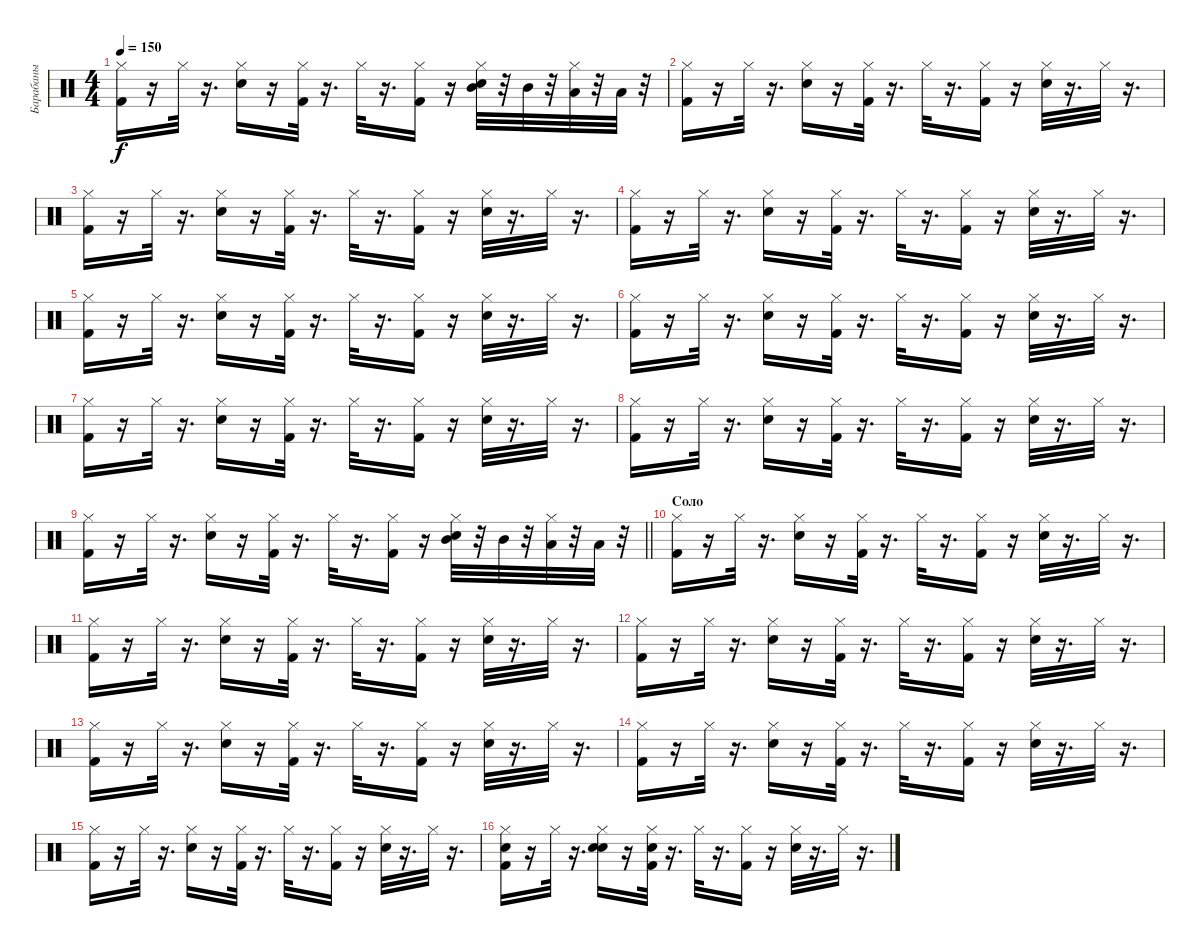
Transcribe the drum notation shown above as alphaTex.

\track ("Барабаны" "Барабаны") {instrument percussion}
\staff {score}
\articulation defaults
\ts (4 4)
\tempo 150
\clef neutral
\ks c
("Kick (hit) 2" "Hi-Hat (closed)").16{dy f} r.16 "Hi-Hat (closed)".32 r.16{d} ("Electric Snare (hit)" "Hi-Hat (closed)").16 r.16 ("Kick (hit) 2" "Hi-Hat (closed)").32 r.16{d} "Hi-Hat (closed)".32 r.16{d} ("Kick (hit) 2" "Hi-Hat (closed)").16 r.16 ("Electric Snare (hit)" "Hi-Hat (closed)" "Mid Tom (hit)").32 r.32 "Mid Tom (hit)".32 r.32 ("Low Tom (hit)" "Hi-Hat (closed)").32 r.32 "Low Tom (hit)".32 r.32 |
("Hi-Hat (closed)" "Kick (hit) 2").16 r.16 "Hi-Hat (closed)".32 r.16{d} ("Electric Snare (hit)" "Hi-Hat (closed)").16 r.16 ("Hi-Hat (closed)" "Kick (hit) 2").32 r.16{d} "Hi-Hat (closed)".32 r.16{d} ("Kick (hit) 2" "Hi-Hat (closed)").16 r.16 ("Electric Snare (hit)" "Hi-Hat (closed)").32 r.16{d} "Hi-Hat (closed)".32 r.16{d} |
("Hi-Hat (closed)" "Kick (hit) 2").16 r.16 "Hi-Hat (closed)".32 r.16{d} ("Electric Snare (hit)" "Hi-Hat (closed)").16 r.16 ("Kick (hit) 2" "Hi-Hat (closed)").32 r.16{d} "Hi-Hat (closed)".32 r.16{d} ("Kick (hit) 2" "Hi-Hat (closed)").16 r.16 ("Electric Snare (hit)" "Hi-Hat (closed)").32 r.16{d} "Hi-Hat (closed)".32 r.16{d} |
("Kick (hit) 2" "Hi-Hat (closed)").16 r.16 "Hi-Hat (closed)".32 r.16{d} ("Electric Snare (hit)" "Hi-Hat (closed)").16 r.16 ("Kick (hit) 2" "Hi-Hat (closed)").32 r.16{d} "Hi-Hat (closed)".32 r.16{d} ("Kick (hit) 2" "Hi-Hat (closed)").16 r.16 ("Electric Snare (hit)" "Hi-Hat (closed)").32 r.16{d} "Hi-Hat (closed)".32 r.16{d} |
("Kick (hit) 2" "Hi-Hat (closed)").16 r.16 "Hi-Hat (closed)".32 r.16{d} ("Electric Snare (hit)" "Hi-Hat (closed)").16 r.16 ("Kick (hit) 2" "Hi-Hat (closed)").32 r.16{d} "Hi-Hat (closed)".32 r.16{d} ("Kick (hit) 2" "Hi-Hat (closed)").16 r.16 ("Electric Snare (hit)" "Hi-Hat (closed)").32 r.16{d} "Hi-Hat (closed)".32 r.16{d} |
("Hi-Hat (closed)" "Kick (hit) 2").16 r.16 "Hi-Hat (closed)".32 r.16{d} ("Electric Snare (hit)" "Hi-Hat (closed)").16 r.16 ("Hi-Hat (closed)" "Kick (hit) 2").32 r.16{d} "Hi-Hat (closed)".32 r.16{d} ("Hi-Hat (closed)" "Kick (hit) 2").16 r.16 ("Electric Snare (hit)" "Hi-Hat (closed)").32 r.16{d} "Hi-Hat (closed)".32 r.16{d} |
("Hi-Hat (closed)" "Kick (hit) 2").16 r.16 "Hi-Hat (closed)".32 r.16{d} ("Electric Snare (hit)" "Hi-Hat (closed)").16 r.16 ("Kick (hit) 2" "Hi-Hat (closed)").32 r.16{d} "Hi-Hat (closed)".32 r.16{d} ("Kick (hit) 2" "Hi-Hat (closed)").16 r.16 ("Electric Snare (hit)" "Hi-Hat (closed)").32 r.16{d} "Hi-Hat (closed)".32 r.16{d} |
("Kick (hit) 2" "Hi-Hat (closed)").16 r.16 "Hi-Hat (closed)".32 r.16{d} ("Electric Snare (hit)" "Hi-Hat (closed)").16 r.16 ("Kick (hit) 2" "Hi-Hat (closed)").32 r.16{d} "Hi-Hat (closed)".32 r.16{d} ("Kick (hit) 2" "Hi-Hat (closed)").16 r.16 ("Electric Snare (hit)" "Hi-Hat (closed)").32 r.16{d} "Hi-Hat (closed)".32 r.16{d} |
\barLineRight lightlight
("Hi-Hat (closed)" "Kick (hit) 2").16 r.16 "Hi-Hat (closed)".32 r.16{d} ("Electric Snare (hit)" "Hi-Hat (closed)").16 r.16 ("Kick (hit) 2" "Hi-Hat (closed)").32 r.16{d} "Hi-Hat (closed)".32 r.16{d} ("Kick (hit) 2" "Hi-Hat (closed)").16 r.16 ("Electric Snare (hit)" "Hi-Hat (closed)" "Mid Tom (hit)").32 r.32 "Mid Tom (hit)".32 r.32 ("Low Tom (hit)" "Hi-Hat (closed)").32 r.32 "Low Tom (hit)".32 r.32 |
\section ("" "Соло")
("Hi-Hat (closed)" "Kick (hit) 2").16 r.16 "Hi-Hat (closed)".32 r.16{d} ("Hi-Hat (closed)" "Electric Snare (hit)").16 r.16 ("Kick (hit) 2" "Hi-Hat (closed)").32 r.16{d} "Hi-Hat (closed)".32 r.16{d} ("Hi-Hat (closed)" "Kick (hit) 2").16 r.16 ("Hi-Hat (closed)" "Electric Snare (hit)").32 r.16{d} "Hi-Hat (closed)".32 r.16{d} |
("Kick (hit) 2" "Hi-Hat (closed)").16 r.16 "Hi-Hat (closed)".32 r.16{d} ("Electric Snare (hit)" "Hi-Hat (closed)").16 r.16 ("Kick (hit) 2" "Hi-Hat (closed)").32 r.16{d} "Hi-Hat (closed)".32 r.16{d} ("Kick (hit) 2" "Hi-Hat (closed)").16 r.16 ("Electric Snare (hit)" "Hi-Hat (closed)").32 r.16{d} "Hi-Hat (closed)".32 r.16{d} |
("Kick (hit) 2" "Hi-Hat (closed)").16 r.16 "Hi-Hat (closed)".32 r.16{d} ("Electric Snare (hit)" "Hi-Hat (closed)").16 r.16 ("Kick (hit) 2" "Hi-Hat (closed)").32 r.16{d} "Hi-Hat (closed)".32 r.16{d} ("Kick (hit) 2" "Hi-Hat (closed)").16 r.16 ("Electric Snare (hit)" "Hi-Hat (closed)").32 r.16{d} "Hi-Hat (closed)".32 r.16{d} |
("Hi-Hat (closed)" "Kick (hit) 2").16 r.16 "Hi-Hat (closed)".32 r.16{d} ("Electric Snare (hit)" "Hi-Hat (closed)").16 r.16 ("Kick (hit) 2" "Hi-Hat (closed)").32 r.16{d} "Hi-Hat (closed)".32 r.16{d} ("Kick (hit) 2" "Hi-Hat (closed)").16 r.16 ("Electric Snare (hit)" "Hi-Hat (closed)").32 r.16{d} "Hi-Hat (closed)".32 r.16{d} |
("Hi-Hat (closed)" "Kick (hit) 2").16 r.16 "Hi-Hat (closed)".32 r.16{d} ("Electric Snare (hit)" "Hi-Hat (closed)").16 r.16 ("Hi-Hat (closed)" "Kick (hit) 2").32 r.16{d} "Hi-Hat (closed)".32 r.16{d} ("Hi-Hat (closed)" "Kick (hit) 2").16 r.16 ("Electric Snare (hit)" "Hi-Hat (closed)").32 r.16{d} "Hi-Hat (closed)".32 r.16{d} |
("Hi-Hat (closed)" "Kick (hit) 2").16 r.16 "Hi-Hat (closed)".32 r.16{d} ("Electric Snare (hit)" "Hi-Hat (closed)").16 r.16 ("Kick (hit) 2" "Hi-Hat (closed)").32 r.16{d} "Hi-Hat (closed)".32 r.16{d} ("Kick (hit) 2" "Hi-Hat (closed)").16 r.16 ("Electric Snare (hit)" "Hi-Hat (closed)").32 r.16{d} "Hi-Hat (closed)".32 r.16{d} |
("Kick (hit) 2" "Hi-Hat (closed)" "Hand Clap (hit)").16 r.16 "Hi-Hat (closed)".32 r.16{d} ("Electric Snare (hit)" "Hand Clap (hit)" "Hi-Hat (closed)").16 r.16 ("Kick (hit) 2" "Hi-Hat (closed)" "Hand Clap (hit)").32 r.16{d} "Hi-Hat (closed)".32 r.16{d} ("Kick (hit) 2" "Hi-Hat (closed)").16 r.16 ("Electric Snare (hit)" "Hi-Hat (closed)").32 r.16{d} "Hi-Hat (closed)".32 r.16{d}
